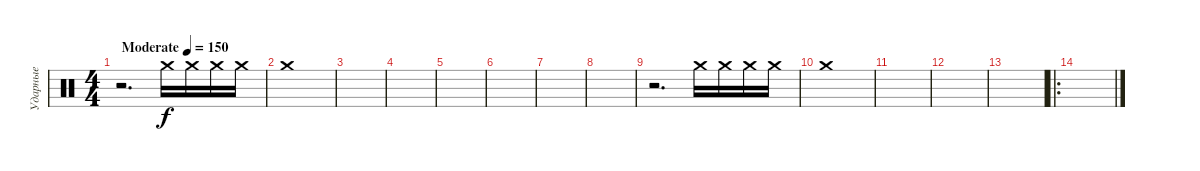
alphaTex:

\track ("Ударные" "Ударные") {instrument percussion}
\staff {score}
\articulation defaults
\ts (4 4)
\tempo (150 "Moderate")
\clef neutral
\ks c
r.2{d dy f} "Crash medium (hit)".16 "Crash medium (hit)".16 "Crash medium (hit)".16 "Crash medium (hit)".16 |
"Crash medium (hit)".1 |
|
|
|
|
|
|
r.2{d} "Crash medium (hit)".16 "Crash medium (hit)".16 "Crash medium (hit)".16 "Crash medium (hit)".16 |
"Crash medium (hit)".1 |
|
|
|
\ro
